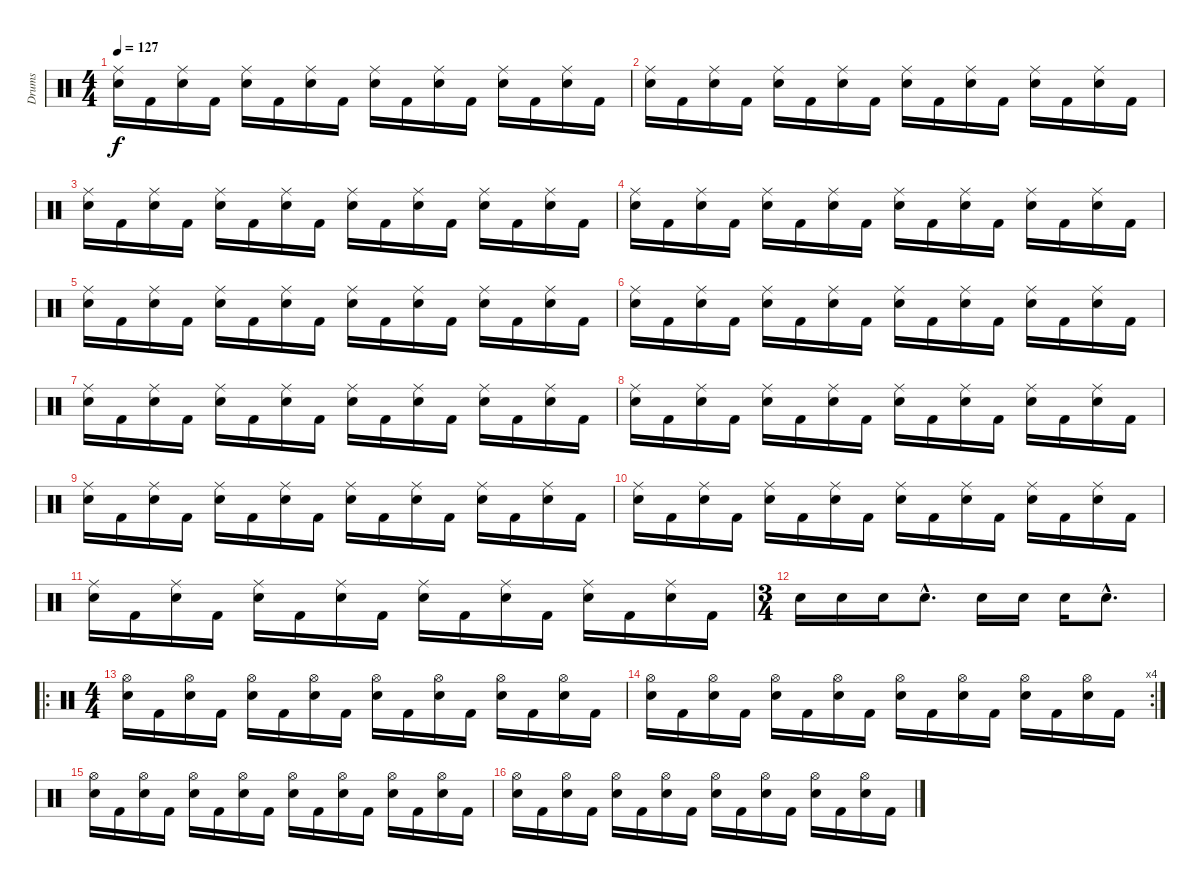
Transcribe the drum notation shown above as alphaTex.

\track ("Drums" "Drums") {instrument percussion}
\staff {score}
\articulation defaults
\ts (4 4)
\tempo 127
\clef neutral
\ks c
("Ride (middle)" "Snare (hit) 2").16{dy f} "Kick (hit) 2".16 ("Ride (middle)" "Snare (hit) 2").16 "Kick (hit) 2".16 ("Ride (middle)" "Snare (hit) 2").16 "Kick (hit) 2".16 ("Ride (middle)" "Snare (hit) 2").16 "Kick (hit) 2".16 ("Ride (middle)" "Snare (hit) 2").16 "Kick (hit) 2".16 ("Ride (middle)" "Snare (hit) 2").16 "Kick (hit) 2".16 ("Ride (middle)" "Snare (hit) 2").16 "Kick (hit) 2".16 ("Ride (middle)" "Snare (hit) 2").16 "Kick (hit) 2".16 |
("Ride (middle)" "Snare (hit) 2").16 "Kick (hit) 2".16 ("Ride (middle)" "Snare (hit) 2").16 "Kick (hit) 2".16 ("Ride (middle)" "Snare (hit) 2").16 "Kick (hit) 2".16 ("Ride (middle)" "Snare (hit) 2").16 "Kick (hit) 2".16 ("Ride (middle)" "Snare (hit) 2").16 "Kick (hit) 2".16 ("Ride (middle)" "Snare (hit) 2").16 "Kick (hit) 2".16 ("Ride (middle)" "Snare (hit) 2").16 "Kick (hit) 2".16 ("Ride (middle)" "Snare (hit) 2").16 "Kick (hit) 2".16 |
("Ride (middle)" "Snare (hit) 2").16 "Kick (hit) 2".16 ("Ride (middle)" "Snare (hit) 2").16 "Kick (hit) 2".16 ("Ride (middle)" "Snare (hit) 2").16 "Kick (hit) 2".16 ("Ride (middle)" "Snare (hit) 2").16 "Kick (hit) 2".16 ("Ride (middle)" "Snare (hit) 2").16 "Kick (hit) 2".16 ("Ride (middle)" "Snare (hit) 2").16 "Kick (hit) 2".16 ("Ride (middle)" "Snare (hit) 2").16 "Kick (hit) 2".16 ("Ride (middle)" "Snare (hit) 2").16 "Kick (hit) 2".16 |
("Ride (middle)" "Snare (hit) 2").16 "Kick (hit) 2".16 ("Ride (middle)" "Snare (hit) 2").16 "Kick (hit) 2".16 ("Ride (middle)" "Snare (hit) 2").16 "Kick (hit) 2".16 ("Ride (middle)" "Snare (hit) 2").16 "Kick (hit) 2".16 ("Ride (middle)" "Snare (hit) 2").16 "Kick (hit) 2".16 ("Ride (middle)" "Snare (hit) 2").16 "Kick (hit) 2".16 ("Ride (middle)" "Snare (hit) 2").16 "Kick (hit) 2".16 ("Ride (middle)" "Snare (hit) 2").16 "Kick (hit) 2".16 |
("Ride (middle)" "Snare (hit) 2").16 "Kick (hit) 2".16 ("Ride (middle)" "Snare (hit) 2").16 "Kick (hit) 2".16 ("Ride (middle)" "Snare (hit) 2").16 "Kick (hit) 2".16 ("Ride (middle)" "Snare (hit) 2").16 "Kick (hit) 2".16 ("Ride (middle)" "Snare (hit) 2").16 "Kick (hit) 2".16 ("Ride (middle)" "Snare (hit) 2").16 "Kick (hit) 2".16 ("Ride (middle)" "Snare (hit) 2").16 "Kick (hit) 2".16 ("Ride (middle)" "Snare (hit) 2").16 "Kick (hit) 2".16 |
("Ride (middle)" "Snare (hit) 2").16 "Kick (hit) 2".16 ("Ride (middle)" "Snare (hit) 2").16 "Kick (hit) 2".16 ("Ride (middle)" "Snare (hit) 2").16 "Kick (hit) 2".16 ("Ride (middle)" "Snare (hit) 2").16 "Kick (hit) 2".16 ("Ride (middle)" "Snare (hit) 2").16 "Kick (hit) 2".16 ("Ride (middle)" "Snare (hit) 2").16 "Kick (hit) 2".16 ("Ride (middle)" "Snare (hit) 2").16 "Kick (hit) 2".16 ("Ride (middle)" "Snare (hit) 2").16 "Kick (hit) 2".16 |
("Ride (middle)" "Snare (hit) 2").16 "Kick (hit) 2".16 ("Ride (middle)" "Snare (hit) 2").16 "Kick (hit) 2".16 ("Ride (middle)" "Snare (hit) 2").16 "Kick (hit) 2".16 ("Ride (middle)" "Snare (hit) 2").16 "Kick (hit) 2".16 ("Ride (middle)" "Snare (hit) 2").16 "Kick (hit) 2".16 ("Ride (middle)" "Snare (hit) 2").16 "Kick (hit) 2".16 ("Ride (middle)" "Snare (hit) 2").16 "Kick (hit) 2".16 ("Ride (middle)" "Snare (hit) 2").16 "Kick (hit) 2".16 |
("Ride (middle)" "Snare (hit) 2").16 "Kick (hit) 2".16 ("Ride (middle)" "Snare (hit) 2").16 "Kick (hit) 2".16 ("Ride (middle)" "Snare (hit) 2").16 "Kick (hit) 2".16 ("Ride (middle)" "Snare (hit) 2").16 "Kick (hit) 2".16 ("Ride (middle)" "Snare (hit) 2").16 "Kick (hit) 2".16 ("Ride (middle)" "Snare (hit) 2").16 "Kick (hit) 2".16 ("Ride (middle)" "Snare (hit) 2").16 "Kick (hit) 2".16 ("Ride (middle)" "Snare (hit) 2").16 "Kick (hit) 2".16 |
("Ride (middle)" "Snare (hit) 2").16 "Kick (hit) 2".16 ("Ride (middle)" "Snare (hit) 2").16 "Kick (hit) 2".16 ("Ride (middle)" "Snare (hit) 2").16 "Kick (hit) 2".16 ("Ride (middle)" "Snare (hit) 2").16 "Kick (hit) 2".16 ("Ride (middle)" "Snare (hit) 2").16 "Kick (hit) 2".16 ("Ride (middle)" "Snare (hit) 2").16 "Kick (hit) 2".16 ("Ride (middle)" "Snare (hit) 2").16 "Kick (hit) 2".16 ("Ride (middle)" "Snare (hit) 2").16 "Kick (hit) 2".16 |
("Ride (middle)" "Snare (hit) 2").16 "Kick (hit) 2".16 ("Ride (middle)" "Snare (hit) 2").16 "Kick (hit) 2".16 ("Ride (middle)" "Snare (hit) 2").16 "Kick (hit) 2".16 ("Ride (middle)" "Snare (hit) 2").16 "Kick (hit) 2".16 ("Ride (middle)" "Snare (hit) 2").16 "Kick (hit) 2".16 ("Ride (middle)" "Snare (hit) 2").16 "Kick (hit) 2".16 ("Ride (middle)" "Snare (hit) 2").16 "Kick (hit) 2".16 ("Ride (middle)" "Snare (hit) 2").16 "Kick (hit) 2".16 |
("Ride (middle)" "Snare (hit) 2").16 "Kick (hit) 2".16 ("Ride (middle)" "Snare (hit) 2").16 "Kick (hit) 2".16 ("Ride (middle)" "Snare (hit) 2").16 "Kick (hit) 2".16 ("Ride (middle)" "Snare (hit) 2").16 "Kick (hit) 2".16 ("Ride (middle)" "Snare (hit) 2").16 "Kick (hit) 2".16 ("Ride (middle)" "Snare (hit) 2").16 "Kick (hit) 2".16 ("Ride (middle)" "Snare (hit) 2").16 "Kick (hit) 2".16 ("Ride (middle)" "Snare (hit) 2").16 "Kick (hit) 2".16 |
\ts (3 4)
"Snare (hit) 2".16 "Snare (hit) 2".16 "Snare (hit) 2".16 "Snare (hit) 2"{hac}.8{d} "Snare (hit) 2".16 "Snare (hit) 2".16 "Snare (hit) 2".16 "Snare (hit) 2"{hac}.8{d} |
\ro
\ts (4 4)
("Hi-Hat (open)" "Snare (hit) 2").16 "Kick (hit) 2".16 ("Hi-Hat (open)" "Snare (hit) 2").16 "Kick (hit) 2".16 ("Hi-Hat (open)" "Snare (hit) 2").16 "Kick (hit) 2".16 ("Hi-Hat (open)" "Snare (hit) 2").16 "Kick (hit) 2".16 ("Hi-Hat (open)" "Snare (hit) 2").16 "Kick (hit) 2".16 ("Hi-Hat (open)" "Snare (hit) 2").16 "Kick (hit) 2".16 ("Hi-Hat (open)" "Snare (hit) 2").16 "Kick (hit) 2".16 ("Hi-Hat (open)" "Snare (hit) 2").16 "Kick (hit) 2".16 |
\rc 4
("Hi-Hat (open)" "Snare (hit) 2").16 "Kick (hit) 2".16 ("Hi-Hat (open)" "Snare (hit) 2").16 "Kick (hit) 2".16 ("Hi-Hat (open)" "Snare (hit) 2").16 "Kick (hit) 2".16 ("Hi-Hat (open)" "Snare (hit) 2").16 "Kick (hit) 2".16 ("Hi-Hat (open)" "Snare (hit) 2").16 "Kick (hit) 2".16 ("Hi-Hat (open)" "Snare (hit) 2").16 "Kick (hit) 2".16 ("Hi-Hat (open)" "Snare (hit) 2").16 "Kick (hit) 2".16 ("Hi-Hat (open)" "Snare (hit) 2").16 "Kick (hit) 2".16 |
("Hi-Hat (open)" "Snare (hit) 2").16 "Kick (hit) 2".16 ("Hi-Hat (open)" "Snare (hit) 2").16 "Kick (hit) 2".16 ("Hi-Hat (open)" "Snare (hit) 2").16 "Kick (hit) 2".16 ("Hi-Hat (open)" "Snare (hit) 2").16 "Kick (hit) 2".16 ("Hi-Hat (open)" "Snare (hit) 2").16 "Kick (hit) 2".16 ("Hi-Hat (open)" "Snare (hit) 2").16 "Kick (hit) 2".16 ("Hi-Hat (open)" "Snare (hit) 2").16 "Kick (hit) 2".16 ("Hi-Hat (open)" "Snare (hit) 2").16 "Kick (hit) 2".16 |
("Hi-Hat (open)" "Snare (hit) 2").16 "Kick (hit) 2".16 ("Hi-Hat (open)" "Snare (hit) 2").16 "Kick (hit) 2".16 ("Hi-Hat (open)" "Snare (hit) 2").16 "Kick (hit) 2".16 ("Hi-Hat (open)" "Snare (hit) 2").16 "Kick (hit) 2".16 ("Hi-Hat (open)" "Snare (hit) 2").16 "Kick (hit) 2".16 ("Hi-Hat (open)" "Snare (hit) 2").16 "Kick (hit) 2".16 ("Hi-Hat (open)" "Snare (hit) 2").16 "Kick (hit) 2".16 ("Hi-Hat (open)" "Snare (hit) 2").16 "Kick (hit) 2".16
